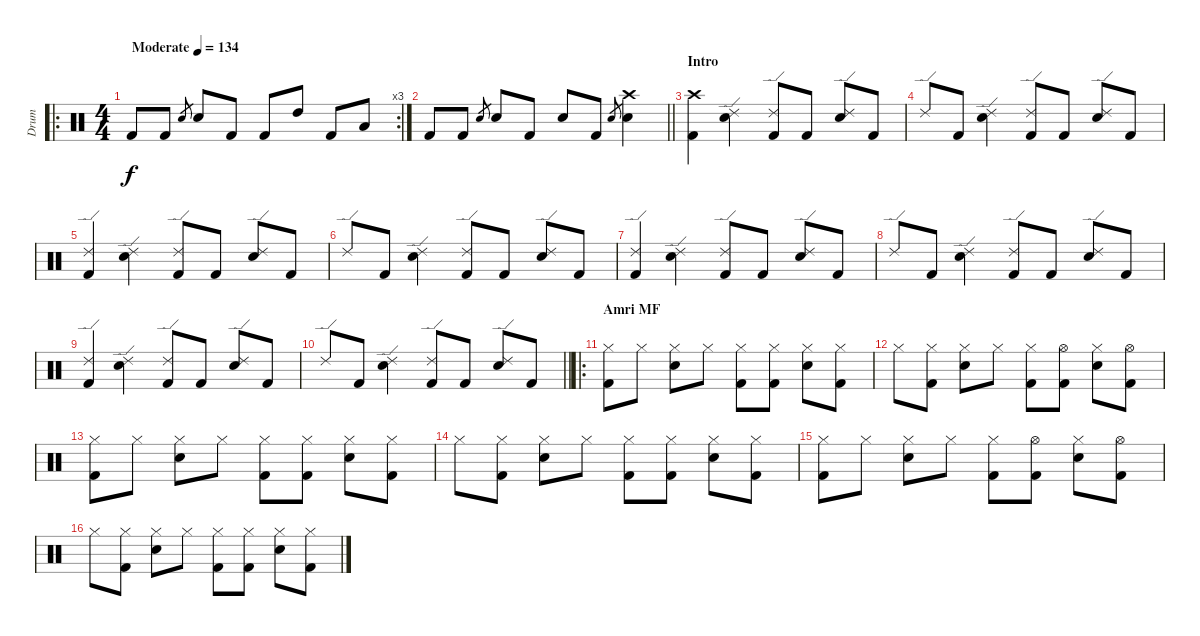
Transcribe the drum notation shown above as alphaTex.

\track ("Drum" "Drum") {instrument percussion}
\staff {score}
\articulation defaults
\ro
\rc 3
\ts (4 4)
\tempo (134 "Moderate")
\clef neutral
\ks c "Kick (hit) 2".8{dy f} "Kick (hit) 2".8 "Electric Snare (hit)".8{gr} "Electric Snare (hit)".8 "Kick (hit) 2".8 "Kick (hit) 2".8 "High Tom (hit)".8 "Kick (hit) 2".8 "Low Tom (hit)".8
|
\barLineRight lightlight "Kick (hit) 2".8 "Kick (hit) 2".8 "Electric Snare (hit)".8{gr} "Electric Snare (hit)".8 "Kick (hit) 2".8 "Electric Snare (hit)".8 "Kick (hit) 2".8 "Electric Snare (hit)".8{gr}
("Electric Snare (hit)" "Crash high (hit)").4 |
\section ("" "Intro")
("Kick (hit) 2" "Crash high (hit)").4 ("Electric Snare (hit)" "Ride (edge) 2").4 ("Ride (edge) 2" "Kick (hit) 2").8 "Kick (hit) 2".8 ("Electric Snare (hit)" "Ride (edge) 2").8 "Kick (hit) 2".8 |
"Ride (edge) 2".8 "Kick (hit) 2".8 ("Electric Snare (hit)" "Ride (edge) 2").4 ("Kick (hit) 2" "Ride (edge) 2").8 "Kick (hit) 2".8 ("Ride (edge) 2" "Electric Snare (hit)").8 "Kick (hit) 2".8 |
("Kick (hit) 2" "Ride (edge) 2").4 ("Electric Snare (hit)" "Ride (edge) 2").4 ("Ride (edge) 2" "Kick (hit) 2").8 "Kick (hit) 2".8 ("Electric Snare (hit)" "Ride (edge) 2").8 "Kick (hit) 2".8 |
"Ride (edge) 2".8 "Kick (hit) 2".8 ("Electric Snare (hit)" "Ride (edge) 2").4 ("Kick (hit) 2" "Ride (edge) 2").8 "Kick (hit) 2".8 ("Ride (edge) 2" "Electric Snare (hit)").8 "Kick (hit) 2".8 |
("Kick (hit) 2" "Ride (edge) 2").4 ("Electric Snare (hit)" "Ride (edge) 2").4 ("Ride (edge) 2" "Kick (hit) 2").8 "Kick (hit) 2".8 ("Electric Snare (hit)" "Ride (edge) 2").8 "Kick (hit) 2".8 |
"Ride (edge) 2".8 "Kick (hit) 2".8 ("Electric Snare (hit)" "Ride (edge) 2").4 ("Kick (hit) 2" "Ride (edge) 2").8 "Kick (hit) 2".8 ("Ride (edge) 2" "Electric Snare (hit)").8 "Kick (hit) 2".8 |
("Kick (hit) 2" "Ride (edge) 2").4 ("Electric Snare (hit)" "Ride (edge) 2").4 ("Ride (edge) 2" "Kick (hit) 2").8 "Kick (hit) 2".8 ("Electric Snare (hit)" "Ride (edge) 2").8 "Kick (hit) 2".8 |
\barLineRight lightlight "Ride (edge) 2".8 "Kick (hit) 2".8
("Electric Snare (hit)" "Ride (edge) 2").4 ("Kick (hit) 2" "Ride (edge) 2").8 "Kick (hit) 2".8 ("Ride (edge) 2" "Electric Snare (hit)").8 "Kick (hit) 2".8 |
\ro
\section ("" "Amri MF")
("Kick (hit) 2" "Hi-Hat (closed)").8 "Hi-Hat (closed)".8 ("Hi-Hat (closed)" "Electric Snare (hit)").8 "Hi-Hat (closed)".8 ("Hi-Hat (closed)" "Kick (hit) 2").8 ("Hi-Hat (closed)" "Kick (hit) 2").8 ("Electric Snare (hit)" "Hi-Hat (closed)").8 ("Hi-Hat (closed)" "Kick (hit) 2").8 |
"Hi-Hat (closed)".8 ("Hi-Hat (closed)" "Kick (hit) 2").8 ("Electric Snare (hit)" "Hi-Hat (closed)").8 "Hi-Hat (closed)".8 ("Kick (hit) 2" "Hi-Hat (closed)").8 ("Hi-Hat (open)" "Kick (hit) 2").8 ("Hi-Hat (closed)" "Electric Snare (hit)").8 ("Kick (hit) 2" "Hi-Hat (open)").8 |
("Kick (hit) 2" "Hi-Hat (closed)").8 "Hi-Hat (closed)".8 ("Hi-Hat (closed)" "Electric Snare (hit)").8 "Hi-Hat (closed)".8 ("Hi-Hat (closed)" "Kick (hit) 2").8 ("Hi-Hat (closed)" "Kick (hit) 2").8 ("Electric Snare (hit)" "Hi-Hat (closed)").8 ("Hi-Hat (closed)" "Kick (hit) 2").8 |
"Hi-Hat (closed)".8 ("Hi-Hat (closed)" "Kick (hit) 2").8 ("Electric Snare (hit)" "Hi-Hat (closed)").8 "Hi-Hat (closed)".8 ("Kick (hit) 2" "Hi-Hat (closed)").8 ("Hi-Hat (closed)" "Kick (hit) 2").8 ("Hi-Hat (closed)" "Electric Snare (hit)").8 ("Kick (hit) 2" "Hi-Hat (closed)").8 |
("Kick (hit) 2" "Hi-Hat (closed)").8 "Hi-Hat (closed)".8 ("Hi-Hat (closed)" "Electric Snare (hit)").8 "Hi-Hat (closed)".8 ("Hi-Hat (closed)" "Kick (hit) 2").8 ("Hi-Hat (open)" "Kick (hit) 2").8 ("Electric Snare (hit)" "Hi-Hat (closed)").8 ("Hi-Hat (open)" "Kick (hit) 2").8 |
"Hi-Hat (closed)".8 ("Hi-Hat (closed)" "Kick (hit) 2").8 ("Electric Snare (hit)" "Hi-Hat (closed)").8 "Hi-Hat (closed)".8 ("Kick (hit) 2" "Hi-Hat (closed)").8 ("Hi-Hat (closed)" "Kick (hit) 2").8 ("Hi-Hat (closed)" "Electric Snare (hit)").8 ("Kick (hit) 2" "Hi-Hat (closed)").8
